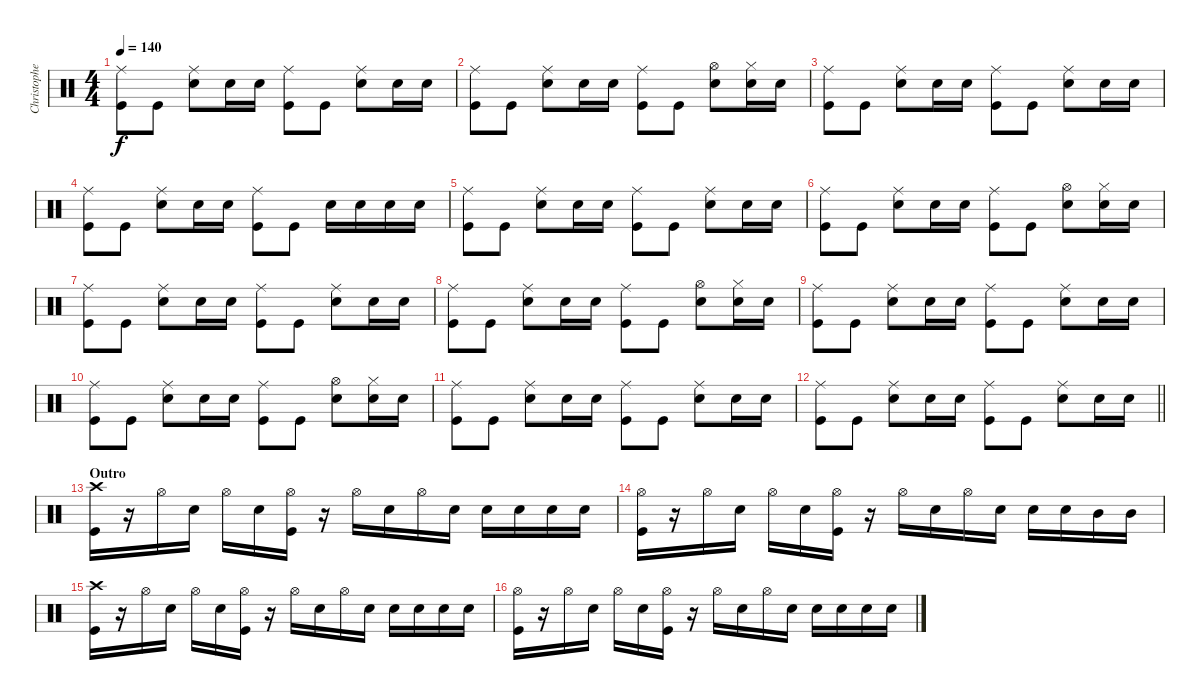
\track ("Christopher - Drums" "Christophe") {instrument percussion}
\staff {score}
\articulation defaults
\ts (4 4)
\tempo 140
\clef neutral
\ks c
("Ride (middle)" "Kick (hit)").8{dy f} "Kick (hit)".8 ("Ride (middle)" "Snare (hit) 2").8 "Snare (hit) 2".16 "Snare (hit) 2".16 ("Ride (middle)" "Kick (hit)").8 "Kick (hit)".8 ("Ride (middle)" "Snare (hit) 2").8 "Snare (hit) 2".16 "Snare (hit) 2".16 |
("Ride (middle)" "Kick (hit)").8 "Kick (hit)".8 ("Ride (middle)" "Snare (hit) 2").8 "Snare (hit) 2".16 "Snare (hit) 2".16 ("Ride (middle)" "Kick (hit)").8 "Kick (hit)".8 ("Hi-Hat (open)" "Snare (hit) 2").8 ("Hi-Hat (closed)" "Snare (hit) 2").16 "Snare (hit) 2".16 |
("Ride (middle)" "Kick (hit)").8 "Kick (hit)".8 ("Ride (middle)" "Snare (hit) 2").8 "Snare (hit) 2".16 "Snare (hit) 2".16 ("Ride (middle)" "Kick (hit)").8 "Kick (hit)".8 ("Ride (middle)" "Snare (hit) 2").8 "Snare (hit) 2".16 "Snare (hit) 2".16 |
("Ride (middle)" "Kick (hit)").8 "Kick (hit)".8 ("Ride (middle)" "Snare (hit) 2").8 "Snare (hit) 2".16 "Snare (hit) 2".16 ("Ride (middle)" "Kick (hit)").8 "Kick (hit)".8 "Snare (hit) 2".16 "Snare (hit) 2".16 "Snare (hit) 2".16 "Snare (hit) 2".16 |
("Ride (middle)" "Kick (hit)").8 "Kick (hit)".8 ("Ride (middle)" "Snare (hit) 2").8 "Snare (hit) 2".16 "Snare (hit) 2".16 ("Ride (middle)" "Kick (hit)").8 "Kick (hit)".8 ("Ride (middle)" "Snare (hit) 2").8 "Snare (hit) 2".16 "Snare (hit) 2".16 |
("Ride (middle)" "Kick (hit)").8 "Kick (hit)".8 ("Ride (middle)" "Snare (hit) 2").8 "Snare (hit) 2".16 "Snare (hit) 2".16 ("Ride (middle)" "Kick (hit)").8 "Kick (hit)".8 ("Hi-Hat (open)" "Snare (hit) 2").8 ("Hi-Hat (closed)" "Snare (hit) 2").16 "Snare (hit) 2".16 |
("Ride (middle)" "Kick (hit)").8 "Kick (hit)".8 ("Ride (middle)" "Snare (hit) 2").8 "Snare (hit) 2".16 "Snare (hit) 2".16 ("Ride (middle)" "Kick (hit)").8 "Kick (hit)".8 ("Ride (middle)" "Snare (hit) 2").8 "Snare (hit) 2".16 "Snare (hit) 2".16 |
("Ride (middle)" "Kick (hit)").8 "Kick (hit)".8 ("Ride (middle)" "Snare (hit) 2").8 "Snare (hit) 2".16 "Snare (hit) 2".16 ("Ride (middle)" "Kick (hit)").8 "Kick (hit)".8 ("Hi-Hat (open)" "Snare (hit) 2").8 ("Hi-Hat (closed)" "Snare (hit) 2").16 "Snare (hit) 2".16 |
("Ride (middle)" "Kick (hit)").8 "Kick (hit)".8 ("Ride (middle)" "Snare (hit) 2").8 "Snare (hit) 2".16 "Snare (hit) 2".16 ("Ride (middle)" "Kick (hit)").8 "Kick (hit)".8 ("Ride (middle)" "Snare (hit) 2").8 "Snare (hit) 2".16 "Snare (hit) 2".16 |
("Ride (middle)" "Kick (hit)").8 "Kick (hit)".8 ("Ride (middle)" "Snare (hit) 2").8 "Snare (hit) 2".16 "Snare (hit) 2".16 ("Ride (middle)" "Kick (hit)").8 "Kick (hit)".8 ("Hi-Hat (open)" "Snare (hit) 2").8 ("Hi-Hat (closed)" "Snare (hit) 2").16 "Snare (hit) 2".16 |
("Ride (middle)" "Kick (hit)").8 "Kick (hit)".8 ("Ride (middle)" "Snare (hit) 2").8 "Snare (hit) 2".16 "Snare (hit) 2".16 ("Ride (middle)" "Kick (hit)").8 "Kick (hit)".8 ("Ride (middle)" "Snare (hit) 2").8 "Snare (hit) 2".16 "Snare (hit) 2".16 |
\barLineRight lightlight
("Ride (middle)" "Kick (hit)").8 "Kick (hit)".8 ("Ride (middle)" "Snare (hit) 2").8 "Snare (hit) 2".16 "Snare (hit) 2".16 ("Ride (middle)" "Kick (hit)").8 "Kick (hit)".8 ("Ride (middle)" "Snare (hit) 2").8 "Snare (hit) 2".16 "Snare (hit) 2".16 |
\section ("" "Outro")
("Crash high (hit)" "Kick (hit)").16 r.16 "Hi-Hat (open)".16 "Snare (hit) 2".16 "Hi-Hat (open)".16 "Snare (hit) 2".16 ("Hi-Hat (open)" "Kick (hit)").16 r.16 "Hi-Hat (open)".16 "Snare (hit) 2".16 "Hi-Hat (open)".16 "Snare (hit) 2".16 "Snare (hit) 2".16 "Snare (hit) 2".16 "Snare (hit) 2".16 "Snare (hit) 2".16 |
("Hi-Hat (open)" "Kick (hit)").16 r.16 "Hi-Hat (open)".16 "Snare (hit) 2".16 "Hi-Hat (open)".16 "Snare (hit) 2".16 ("Hi-Hat (open)" "Kick (hit)").16 r.16 "Hi-Hat (open)".16 "Snare (hit) 2".16 "Hi-Hat (open)".16 "Snare (hit) 2".16 "Snare (hit) 2".16 "Snare (hit) 2".16 "Mid Tom (hit)".16 "Mid Tom (hit)".16 |
("Crash high (hit)" "Kick (hit)").16 r.16 "Hi-Hat (open)".16 "Snare (hit) 2".16 "Hi-Hat (open)".16 "Snare (hit) 2".16 ("Hi-Hat (open)" "Kick (hit)").16 r.16 "Hi-Hat (open)".16 "Snare (hit) 2".16 "Hi-Hat (open)".16 "Snare (hit) 2".16 "Snare (hit) 2".16 "Snare (hit) 2".16 "Snare (hit) 2".16 "Snare (hit) 2".16 |
("Hi-Hat (open)" "Kick (hit)").16 r.16 "Hi-Hat (open)".16 "Snare (hit) 2".16 "Hi-Hat (open)".16 "Snare (hit) 2".16 ("Hi-Hat (open)" "Kick (hit)").16 r.16 "Hi-Hat (open)".16 "Snare (hit) 2".16 "Hi-Hat (open)".16 "Snare (hit) 2".16 "Snare (hit) 2".16 "Snare (hit) 2".16 "Snare (hit) 2".16 "Snare (hit) 2".16
